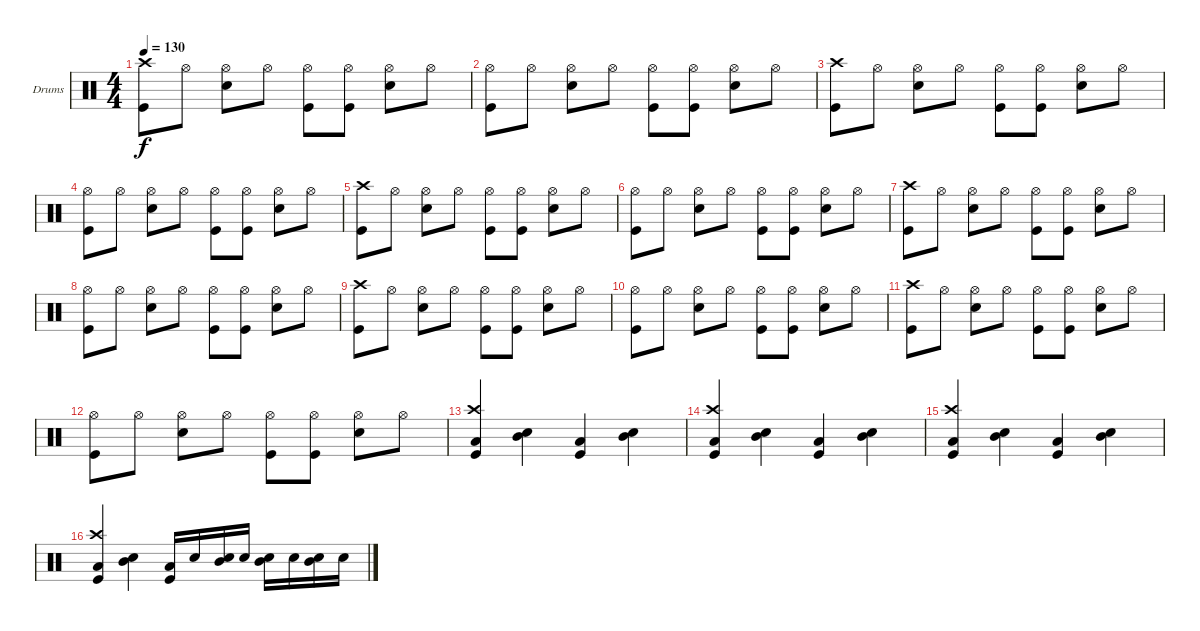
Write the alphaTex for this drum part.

\bracketExtendMode groupsimilarinstruments
\firstSystemTrackNameOrientation horizontal
\otherSystemsTrackNameOrientation horizontal
\track ("Drumkit" "Drums") {instrument percussion}
\staff {score}
\articulation defaults
\ts (4 4)
\tempo 130
\clef neutral
\ks c
("Kick (hit)" "Crash high (hit)").8{dy f} "Hi-Hat (open)".8 ("Snare (hit) 2" "Hi-Hat (open)").8 "Hi-Hat (open)".8 ("Kick (hit)" "Hi-Hat (open)").8 ("Kick (hit)" "Hi-Hat (open)").8 ("Snare (hit) 2" "Hi-Hat (open)").8 "Hi-Hat (open)".8 |
("Kick (hit)" "Hi-Hat (open)").8 "Hi-Hat (open)".8 ("Snare (hit) 2" "Hi-Hat (open)").8 "Hi-Hat (open)".8 ("Kick (hit)" "Hi-Hat (open)").8 ("Kick (hit)" "Hi-Hat (open)").8 ("Snare (hit) 2" "Hi-Hat (open)").8 "Hi-Hat (open)".8 |
("Kick (hit)" "Crash high (hit)").8 "Hi-Hat (open)".8 ("Snare (hit) 2" "Hi-Hat (open)").8 "Hi-Hat (open)".8 ("Kick (hit)" "Hi-Hat (open)").8 ("Kick (hit)" "Hi-Hat (open)").8 ("Snare (hit) 2" "Hi-Hat (open)").8 "Hi-Hat (open)".8 |
("Kick (hit)" "Hi-Hat (open)").8 "Hi-Hat (open)".8 ("Snare (hit) 2" "Hi-Hat (open)").8 "Hi-Hat (open)".8 ("Kick (hit)" "Hi-Hat (open)").8 ("Kick (hit)" "Hi-Hat (open)").8 ("Snare (hit) 2" "Hi-Hat (open)").8 "Hi-Hat (open)".8 |
("Kick (hit)" "Crash high (hit)").8 "Hi-Hat (open)".8 ("Snare (hit) 2" "Hi-Hat (open)").8 "Hi-Hat (open)".8 ("Kick (hit)" "Hi-Hat (open)").8 ("Kick (hit)" "Hi-Hat (open)").8 ("Snare (hit) 2" "Hi-Hat (open)").8 "Hi-Hat (open)".8 |
("Kick (hit)" "Hi-Hat (open)").8 "Hi-Hat (open)".8 ("Snare (hit) 2" "Hi-Hat (open)").8 "Hi-Hat (open)".8 ("Kick (hit)" "Hi-Hat (open)").8 ("Kick (hit)" "Hi-Hat (open)").8 ("Snare (hit) 2" "Hi-Hat (open)").8 "Hi-Hat (open)".8 |
("Kick (hit)" "Crash high (hit)").8 "Hi-Hat (open)".8 ("Snare (hit) 2" "Hi-Hat (open)").8 "Hi-Hat (open)".8 ("Kick (hit)" "Hi-Hat (open)").8 ("Kick (hit)" "Hi-Hat (open)").8 ("Snare (hit) 2" "Hi-Hat (open)").8 "Hi-Hat (open)".8 |
("Kick (hit)" "Hi-Hat (open)").8 "Hi-Hat (open)".8 ("Snare (hit) 2" "Hi-Hat (open)").8 "Hi-Hat (open)".8 ("Kick (hit)" "Hi-Hat (open)").8 ("Kick (hit)" "Hi-Hat (open)").8 ("Snare (hit) 2" "Hi-Hat (open)").8 "Hi-Hat (open)".8 |
("Kick (hit)" "Crash high (hit)").8 "Hi-Hat (open)".8 ("Snare (hit) 2" "Hi-Hat (open)").8 "Hi-Hat (open)".8 ("Kick (hit)" "Hi-Hat (open)").8 ("Kick (hit)" "Hi-Hat (open)").8 ("Snare (hit) 2" "Hi-Hat (open)").8 "Hi-Hat (open)".8 |
("Kick (hit)" "Hi-Hat (open)").8 "Hi-Hat (open)".8 ("Snare (hit) 2" "Hi-Hat (open)").8 "Hi-Hat (open)".8 ("Kick (hit)" "Hi-Hat (open)").8 ("Kick (hit)" "Hi-Hat (open)").8 ("Snare (hit) 2" "Hi-Hat (open)").8 "Hi-Hat (open)".8 |
("Kick (hit)" "Crash high (hit)").8 "Hi-Hat (open)".8 ("Snare (hit) 2" "Hi-Hat (open)").8 "Hi-Hat (open)".8 ("Kick (hit)" "Hi-Hat (open)").8 ("Kick (hit)" "Hi-Hat (open)").8 ("Snare (hit) 2" "Hi-Hat (open)").8 "Hi-Hat (open)".8 |
("Kick (hit)" "Hi-Hat (open)").8 "Hi-Hat (open)".8 ("Snare (hit) 2" "Hi-Hat (open)").8 "Hi-Hat (open)".8 ("Kick (hit)" "Hi-Hat (open)").8 ("Kick (hit)" "Hi-Hat (open)").8 ("Snare (hit) 2" "Hi-Hat (open)").8 "Hi-Hat (open)".8 |
("Kick (hit)" "Crash high (hit)" "Low Tom (hit)").4 ("Snare (hit) 2" "Mid Tom (hit)").4 ("Kick (hit)" "Low Tom (hit)").4 ("Snare (hit) 2" "Mid Tom (hit)").4 |
("Kick (hit)" "Crash high (hit)" "Low Tom (hit)").4 ("Snare (hit) 2" "Mid Tom (hit)").4 ("Kick (hit)" "Low Tom (hit)").4 ("Snare (hit) 2" "Mid Tom (hit)").4 |
("Kick (hit)" "Crash high (hit)" "Low Tom (hit)").4 ("Snare (hit) 2" "Mid Tom (hit)").4 ("Kick (hit)" "Low Tom (hit)").4 ("Snare (hit) 2" "Mid Tom (hit)").4 |
("Kick (hit)" "Crash high (hit)" "Low Tom (hit)").4 ("Snare (hit) 2" "Mid Tom (hit)").4 ("Kick (hit)" "Low Tom (hit)").16 "Snare (hit) 2".16 ("Snare (hit) 2" "Mid Tom (hit)").16 "Snare (hit) 2".16 ("Snare (hit) 2" "Mid Tom (hit)").16 "Snare (hit) 2".16 ("Snare (hit) 2" "Mid Tom (hit)").16 "Snare (hit) 2".16
